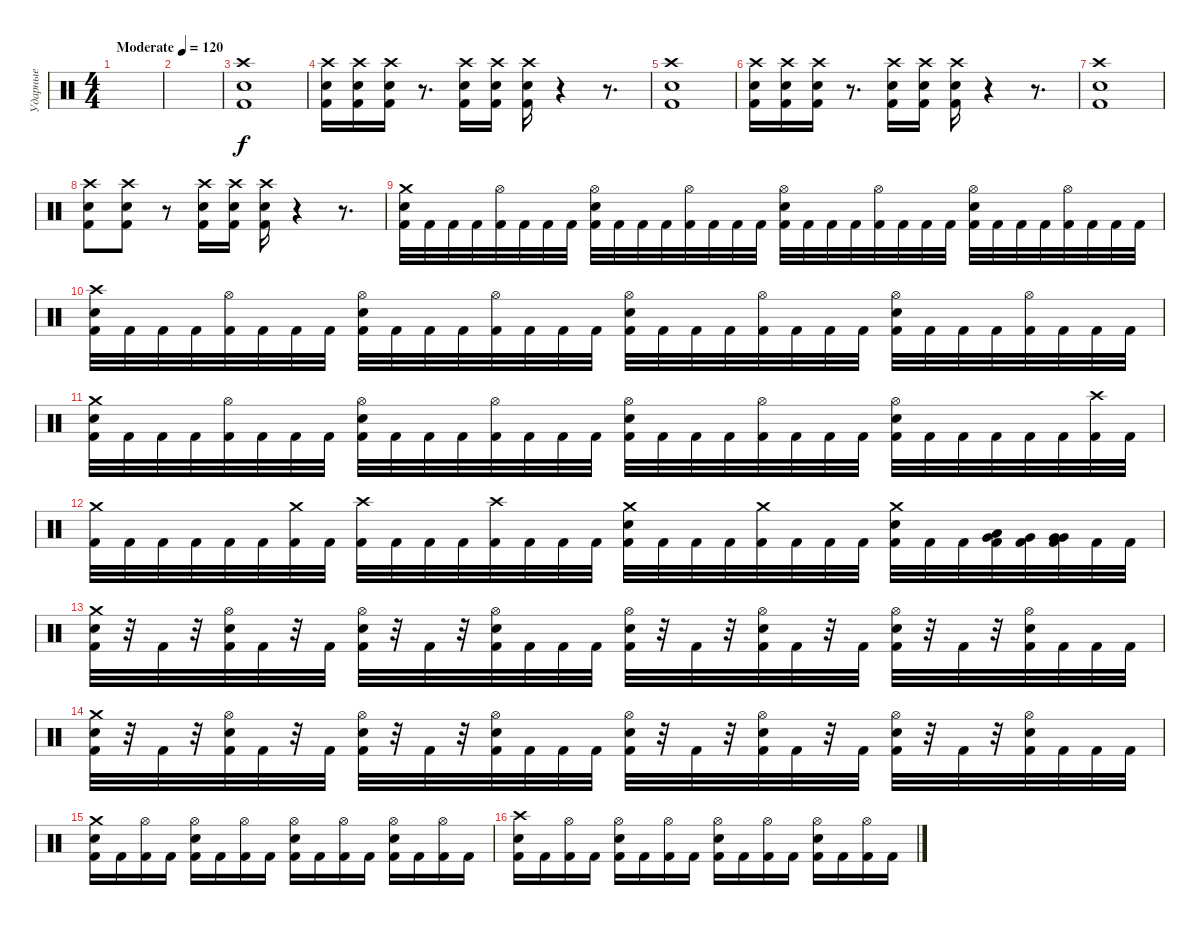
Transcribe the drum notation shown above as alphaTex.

\track ("Ударные" "Ударные") {instrument percussion}
\staff {score}
\articulation defaults
\ts (4 4)
\tempo (120 "Moderate")
\clef neutral
\ks c
|
|
("Crash high (hit)" "Electric Snare (hit)" "Kick (hit) 2").1 |
("Crash high (hit)" "Electric Snare (hit)" "Kick (hit) 2").16 ("Crash high (hit)" "Electric Snare (hit)" "Kick (hit) 2").16 ("Crash high (hit)" "Electric Snare (hit)" "Kick (hit) 2").16 r.8{d} ("Crash high (hit)" "Electric Snare (hit)" "Kick (hit) 2").16 ("Crash high (hit)" "Electric Snare (hit)" "Kick (hit) 2").16 ("Crash high (hit)" "Electric Snare (hit)" "Kick (hit) 2").16 r.4 r.8{d} |
("Crash high (hit)" "Electric Snare (hit)" "Kick (hit) 2").1 |
("Crash high (hit)" "Electric Snare (hit)" "Kick (hit) 2").16 ("Crash high (hit)" "Electric Snare (hit)" "Kick (hit) 2").16 ("Crash high (hit)" "Electric Snare (hit)" "Kick (hit) 2").16 r.8{d} ("Crash high (hit)" "Electric Snare (hit)" "Kick (hit) 2").16 ("Crash high (hit)" "Electric Snare (hit)" "Kick (hit) 2").16 ("Crash high (hit)" "Electric Snare (hit)" "Kick (hit) 2").16 r.4 r.8{d} |
("Crash high (hit)" "Electric Snare (hit)" "Kick (hit) 2").1 |
("Crash high (hit)" "Electric Snare (hit)" "Kick (hit) 2").8 ("Crash high (hit)" "Electric Snare (hit)" "Kick (hit) 2").8 r.8 ("Crash high (hit)" "Electric Snare (hit)" "Kick (hit) 2").16 ("Crash high (hit)" "Electric Snare (hit)" "Kick (hit) 2").16 ("Crash high (hit)" "Electric Snare (hit)" "Kick (hit) 2").16 r.4 r.8{d} |
("Crash medium (hit)" "Electric Snare (hit)" "Kick (hit) 2").32 "Kick (hit) 2".32 "Kick (hit) 2".32 "Kick (hit) 2".32 ("Hi-Hat (open)" "Kick (hit) 2").32 "Kick (hit) 2".32 "Kick (hit) 2".32 "Kick (hit) 2".32 ("Hi-Hat (open)" "Electric Snare (hit)" "Kick (hit) 2").32 "Kick (hit) 2".32 "Kick (hit) 2".32 "Kick (hit) 2".32 ("Hi-Hat (open)" "Kick (hit) 2").32 "Kick (hit) 2".32 "Kick (hit) 2".32 "Kick (hit) 2".32 ("Hi-Hat (open)" "Electric Snare (hit)" "Kick (hit) 2").32 "Kick (hit) 2".32 "Kick (hit) 2".32 "Kick (hit) 2".32 ("Hi-Hat (open)" "Kick (hit) 2").32 "Kick (hit) 2".32 "Kick (hit) 2".32 "Kick (hit) 2".32 ("Hi-Hat (open)" "Electric Snare (hit)" "Kick (hit) 2").32 "Kick (hit) 2".32 "Kick (hit) 2".32 "Kick (hit) 2".32 ("Hi-Hat (open)" "Kick (hit) 2").32 "Kick (hit) 2".32 "Kick (hit) 2".32 "Kick (hit) 2".32 |
("Crash high (hit)" "Electric Snare (hit)" "Kick (hit) 2").32 "Kick (hit) 2".32 "Kick (hit) 2".32 "Kick (hit) 2".32 ("Hi-Hat (open)" "Kick (hit) 2").32 "Kick (hit) 2".32 "Kick (hit) 2".32 "Kick (hit) 2".32 ("Hi-Hat (open)" "Electric Snare (hit)" "Kick (hit) 2").32 "Kick (hit) 2".32 "Kick (hit) 2".32 "Kick (hit) 2".32 ("Hi-Hat (open)" "Kick (hit) 2").32 "Kick (hit) 2".32 "Kick (hit) 2".32 "Kick (hit) 2".32 ("Hi-Hat (open)" "Electric Snare (hit)" "Kick (hit) 2").32 "Kick (hit) 2".32 "Kick (hit) 2".32 "Kick (hit) 2".32 ("Hi-Hat (open)" "Kick (hit) 2").32 "Kick (hit) 2".32 "Kick (hit) 2".32 "Kick (hit) 2".32 ("Hi-Hat (open)" "Electric Snare (hit)" "Kick (hit) 2").32 "Kick (hit) 2".32 "Kick (hit) 2".32 "Kick (hit) 2".32 ("Hi-Hat (open)" "Kick (hit) 2").32 "Kick (hit) 2".32 "Kick (hit) 2".32 "Kick (hit) 2".32 |
("Crash medium (hit)" "Electric Snare (hit)" "Kick (hit) 2").32 "Kick (hit) 2".32 "Kick (hit) 2".32 "Kick (hit) 2".32 ("Hi-Hat (open)" "Kick (hit) 2").32 "Kick (hit) 2".32 "Kick (hit) 2".32 "Kick (hit) 2".32 ("Hi-Hat (open)" "Electric Snare (hit)" "Kick (hit) 2").32 "Kick (hit) 2".32 "Kick (hit) 2".32 "Kick (hit) 2".32 ("Hi-Hat (open)" "Kick (hit) 2").32 "Kick (hit) 2".32 "Kick (hit) 2".32 "Kick (hit) 2".32 ("Hi-Hat (open)" "Electric Snare (hit)" "Kick (hit) 2").32 "Kick (hit) 2".32 "Kick (hit) 2".32 "Kick (hit) 2".32 ("Hi-Hat (open)" "Kick (hit) 2").32 "Kick (hit) 2".32 "Kick (hit) 2".32 "Kick (hit) 2".32 ("Hi-Hat (open)" "Electric Snare (hit)" "Kick (hit) 2").32 "Kick (hit) 2".32 "Kick (hit) 2".32 "Kick (hit) 2".32 "Kick (hit) 2".32 "Kick (hit) 2".32 ("Crash high (hit)" "Kick (hit) 2").32 "Kick (hit) 2".32 |
("Crash medium (hit)" "Kick (hit) 2").32 "Kick (hit) 2".32 "Kick (hit) 2".32 "Kick (hit) 2".32 "Kick (hit) 2".32 "Kick (hit) 2".32 ("Crash medium (hit)" "Kick (hit) 2").32 "Kick (hit) 2".32 ("Crash high (hit)" "Kick (hit) 2").32 "Kick (hit) 2".32 "Kick (hit) 2".32 "Kick (hit) 2".32 ("Crash high (hit)" "Kick (hit) 2").32 "Kick (hit) 2".32 "Kick (hit) 2".32 "Kick (hit) 2".32 ("Crash medium (hit)" "Electric Snare (hit)" "Kick (hit) 2").32 "Kick (hit) 2".32 "Kick (hit) 2".32 "Kick (hit) 2".32 ("Crash medium (hit)" "Kick (hit) 2").32 "Kick (hit) 2".32 "Kick (hit) 2".32 "Kick (hit) 2".32 ("Crash medium (hit)" "Electric Snare (hit)" "Kick (hit) 2").32 "Kick (hit) 2".32 "Kick (hit) 2".32 ("Low Tom (hit)" "Very Low Tom (hit)" "Kick (hit) 2").32 ("Very Low Tom (hit)" "Kick (hit) 2").32 ("Very Low Tom (hit)" "Very Low Tom (hit)" "Kick (hit) 2").32 "Kick (hit) 2".32 "Kick (hit) 2".32 |
("Crash medium (hit)" "Electric Snare (hit)" "Kick (hit) 2").32 r.32 "Kick (hit) 2".32 r.32 ("Hi-Hat (open)" "Electric Snare (hit)" "Kick (hit) 2").32 "Kick (hit) 2".32 r.32 "Kick (hit) 2".32 ("Hi-Hat (open)" "Electric Snare (hit)" "Kick (hit) 2").32 r.32 "Kick (hit) 2".32 r.32 ("Hi-Hat (open)" "Electric Snare (hit)" "Kick (hit) 2").32 "Kick (hit) 2".32 "Kick (hit) 2".32 "Kick (hit) 2".32 ("Hi-Hat (open)" "Electric Snare (hit)" "Kick (hit) 2").32 r.32 "Kick (hit) 2".32 r.32 ("Hi-Hat (open)" "Electric Snare (hit)" "Kick (hit) 2").32 "Kick (hit) 2".32 r.32 "Kick (hit) 2".32 ("Hi-Hat (open)" "Electric Snare (hit)" "Kick (hit) 2").32 r.32 "Kick (hit) 2".32 r.32 ("Hi-Hat (open)" "Electric Snare (hit)" "Kick (hit) 2").32 "Kick (hit) 2".32 "Kick (hit) 2".32 "Kick (hit) 2".32 |
("Crash medium (hit)" "Electric Snare (hit)" "Kick (hit) 2").32 r.32 "Kick (hit) 2".32 r.32 ("Hi-Hat (open)" "Electric Snare (hit)" "Kick (hit) 2").32 "Kick (hit) 2".32 r.32 "Kick (hit) 2".32 ("Hi-Hat (open)" "Electric Snare (hit)" "Kick (hit) 2").32 r.32 "Kick (hit) 2".32 r.32 ("Hi-Hat (open)" "Electric Snare (hit)" "Kick (hit) 2").32 "Kick (hit) 2".32 "Kick (hit) 2".32 "Kick (hit) 2".32 ("Hi-Hat (open)" "Electric Snare (hit)" "Kick (hit) 2").32 r.32 "Kick (hit) 2".32 r.32 ("Hi-Hat (open)" "Electric Snare (hit)" "Kick (hit) 2").32 "Kick (hit) 2".32 r.32 "Kick (hit) 2".32 ("Hi-Hat (open)" "Electric Snare (hit)" "Kick (hit) 2").32 r.32 "Kick (hit) 2".32 r.32 ("Hi-Hat (open)" "Electric Snare (hit)" "Kick (hit) 2").32 "Kick (hit) 2".32 "Kick (hit) 2".32 "Kick (hit) 2".32 |
("Crash medium (hit)" "Electric Snare (hit)" "Kick (hit) 2").16 "Kick (hit) 2".16 ("Hi-Hat (open)" "Kick (hit) 2").16 "Kick (hit) 2".16 ("Hi-Hat (open)" "Electric Snare (hit)" "Kick (hit) 2").16 "Kick (hit) 2".16 ("Hi-Hat (open)" "Kick (hit) 2").16 "Kick (hit) 2".16 ("Hi-Hat (open)" "Electric Snare (hit)" "Kick (hit) 2").16 "Kick (hit) 2".16 ("Hi-Hat (open)" "Kick (hit) 2").16 "Kick (hit) 2".16 ("Hi-Hat (open)" "Electric Snare (hit)" "Kick (hit) 2").16 "Kick (hit) 2".16 ("Hi-Hat (open)" "Kick (hit) 2").16 "Kick (hit) 2".16 |
("Crash high (hit)" "Electric Snare (hit)" "Kick (hit) 2").16 "Kick (hit) 2".16 ("Hi-Hat (open)" "Kick (hit) 2").16 "Kick (hit) 2".16 ("Hi-Hat (open)" "Electric Snare (hit)" "Kick (hit) 2").16 "Kick (hit) 2".16 ("Hi-Hat (open)" "Kick (hit) 2").16 "Kick (hit) 2".16 ("Hi-Hat (open)" "Electric Snare (hit)" "Kick (hit) 2").16 "Kick (hit) 2".16 ("Hi-Hat (open)" "Kick (hit) 2").16 "Kick (hit) 2".16 ("Hi-Hat (open)" "Electric Snare (hit)" "Kick (hit) 2").16 "Kick (hit) 2".16 ("Hi-Hat (open)" "Kick (hit) 2").16 "Kick (hit) 2".16
